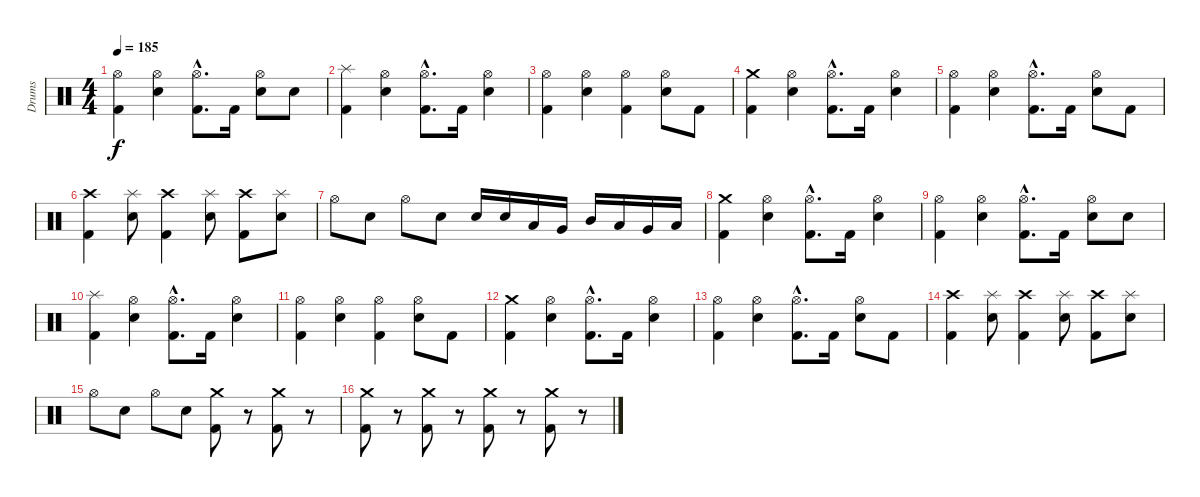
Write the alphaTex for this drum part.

\track ("Drums" "Drums") {instrument percussion}
\staff {score}
\articulation defaults
\ts (4 4)
\tempo 185
\clef neutral
\ks c
("Hi-Hat (open)" "Kick (hit) 2").4{dy f} ("Hi-Hat (open)" "Snare (hit) 2").4 ("Hi-Hat (open)"{hac} "Kick (hit) 2"{hac}).8{d} "Kick (hit) 2".16 ("Hi-Hat (open)" "Snare (hit) 2").8 "Snare (hit) 2".8 |
("Splash (hit)" "Kick (hit) 2").4 ("Hi-Hat (open)" "Snare (hit) 2").4 ("Hi-Hat (open)"{hac} "Kick (hit) 2"{hac}).8{d} "Kick (hit) 2".16 ("Hi-Hat (open)" "Snare (hit) 2").4 |
("Hi-Hat (open)" "Kick (hit) 2").4 ("Hi-Hat (open)" "Snare (hit) 2").4 ("Hi-Hat (open)" "Kick (hit) 2").4 ("Hi-Hat (open)" "Snare (hit) 2").8 "Kick (hit) 2".8 |
("Crash medium (hit)" "Kick (hit) 2").4 ("Hi-Hat (open)" "Snare (hit) 2").4 ("Hi-Hat (open)"{hac} "Kick (hit) 2"{hac}).8{d} "Kick (hit) 2".16 ("Hi-Hat (open)" "Snare (hit) 2").4 |
("Hi-Hat (open)" "Kick (hit) 2").4 ("Hi-Hat (open)" "Snare (hit) 2").4 ("Hi-Hat (open)"{hac} "Kick (hit) 2"{hac}).8{d} "Kick (hit) 2".16 ("Hi-Hat (open)" "Snare (hit) 2").8 "Kick (hit) 2".8 |
("Crash high (hit)" "Kick (hit) 2").4 ("Splash (hit)" "Snare (hit) 2").8 ("Crash high (hit)" "Kick (hit) 2").4 ("Splash (hit)" "Snare (hit) 2").8 ("Crash high (hit)" "Kick (hit) 2").8 ("Splash (hit)" "Snare (hit) 2").8 |
"Hi-Hat (open)".8 "Snare (hit) 2".8 "Hi-Hat (open)".8 "Snare (hit) 2".8 "Snare (hit) 2".16 "Snare (hit) 2".16 "Low Tom (hit)".16 "Very Low Tom (hit)".16 "Mid Tom (hit)".16 "Low Tom (hit)".16 "Very Low Tom (hit)".16 "Low Floor Tom (hit)".16 |
("Crash medium (hit)" "Kick (hit) 2").4 ("Hi-Hat (open)" "Snare (hit) 2").4 ("Hi-Hat (open)"{hac} "Kick (hit) 2"{hac}).8{d} "Kick (hit) 2".16 ("Hi-Hat (open)" "Snare (hit) 2").4 |
("Hi-Hat (open)" "Kick (hit) 2").4 ("Hi-Hat (open)" "Snare (hit) 2").4 ("Hi-Hat (open)"{hac} "Kick (hit) 2"{hac}).8{d} "Kick (hit) 2".16 ("Hi-Hat (open)" "Snare (hit) 2").8 "Snare (hit) 2".8 |
("Splash (hit)" "Kick (hit) 2").4 ("Hi-Hat (open)" "Snare (hit) 2").4 ("Hi-Hat (open)"{hac} "Kick (hit) 2"{hac}).8{d} "Kick (hit) 2".16 ("Hi-Hat (open)" "Snare (hit) 2").4 |
("Hi-Hat (open)" "Kick (hit) 2").4 ("Hi-Hat (open)" "Snare (hit) 2").4 ("Hi-Hat (open)" "Kick (hit) 2").4 ("Hi-Hat (open)" "Snare (hit) 2").8 "Kick (hit) 2".8 |
("Crash medium (hit)" "Kick (hit) 2").4 ("Hi-Hat (open)" "Snare (hit) 2").4 ("Hi-Hat (open)"{hac} "Kick (hit) 2"{hac}).8{d} "Kick (hit) 2".16 ("Hi-Hat (open)" "Snare (hit) 2").4 |
("Hi-Hat (open)" "Kick (hit) 2").4 ("Hi-Hat (open)" "Snare (hit) 2").4 ("Hi-Hat (open)"{hac} "Kick (hit) 2"{hac}).8{d} "Kick (hit) 2".16 ("Hi-Hat (open)" "Snare (hit) 2").8 "Kick (hit) 2".8 |
("Crash high (hit)" "Kick (hit) 2").4 ("Splash (hit)" "Snare (hit) 2").8 ("Crash high (hit)" "Kick (hit) 2").4 ("Splash (hit)" "Snare (hit) 2").8 ("Crash high (hit)" "Kick (hit) 2").8 ("Splash (hit)" "Snare (hit) 2").8 |
"Hi-Hat (open)".8 "Snare (hit) 2".8 "Hi-Hat (open)".8 "Snare (hit) 2".8 ("Crash medium (hit)" "Kick (hit) 2").8 r.8 ("Crash medium (hit)" "Kick (hit) 2").8 r.8 |
("Crash medium (hit)" "Kick (hit) 2").8 r.8 ("Crash medium (hit)" "Kick (hit) 2").8 r.8 ("Crash medium (hit)" "Kick (hit) 2").8 r.8 ("Crash medium (hit)" "Kick (hit) 2").8 r.8
